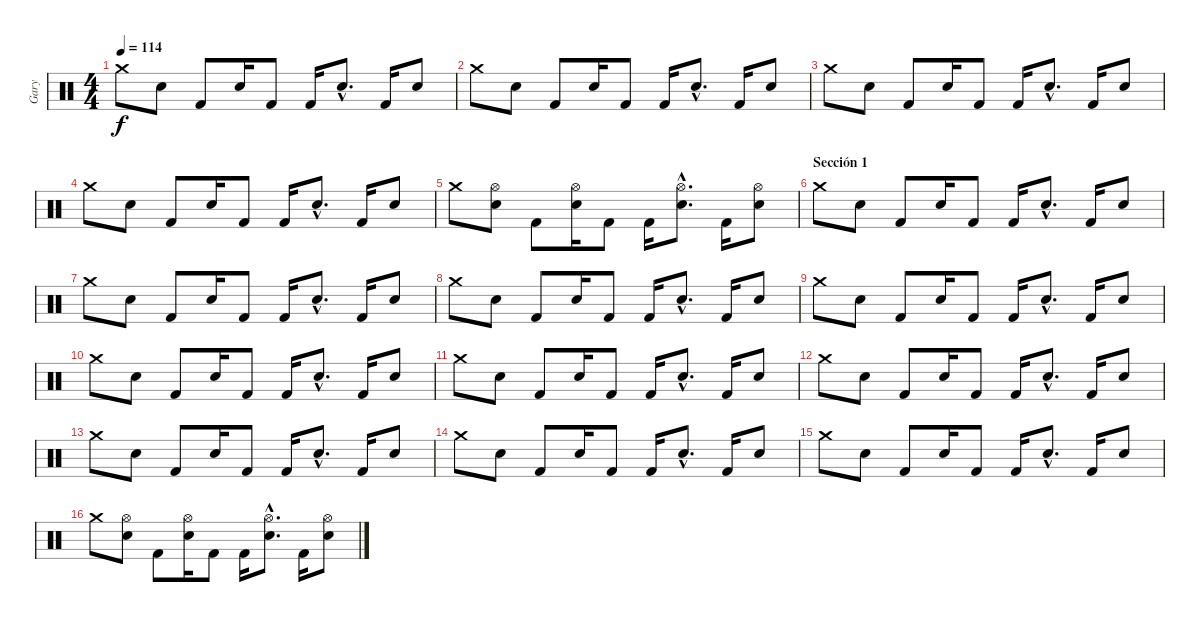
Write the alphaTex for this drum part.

\track ("Gary" "Gary") {instrument percussion}
\staff {score}
\articulation defaults
\ts (4 4)
\tempo 114
\clef neutral
\ks c "Crash medium (hit)".8{dy f} "Snare (hit) 2".8 "Kick (hit) 2".8 "Snare (hit) 2".16 "Kick (hit) 2".8 "Kick (hit) 2".16 "Snare (hit) 2"{hac}.8{d} "Kick (hit) 2".16 "Snare (hit) 2".8
|
"Crash medium (hit)".8 "Snare (hit) 2".8 "Kick (hit) 2".8 "Snare (hit) 2".16 "Kick (hit) 2".8 "Kick (hit) 2".16 "Snare (hit) 2"{hac}.8{d} "Kick (hit) 2".16 "Snare (hit) 2".8 |
"Crash medium (hit)".8 "Snare (hit) 2".8 "Kick (hit) 2".8 "Snare (hit) 2".16 "Kick (hit) 2".8 "Kick (hit) 2".16 "Snare (hit) 2"{hac}.8{d} "Kick (hit) 2".16 "Snare (hit) 2".8 |
"Crash medium (hit)".8 "Snare (hit) 2".8 "Kick (hit) 2".8 "Snare (hit) 2".16 "Kick (hit) 2".8 "Kick (hit) 2".16 "Snare (hit) 2"{hac}.8{d} "Kick (hit) 2".16 "Snare (hit) 2".8 |
"Crash medium (hit)".8 ("Hi-Hat (open)" "Snare (hit) 2").8 "Kick (hit) 2".8 ("Hi-Hat (open)" "Snare (hit) 2").16 "Kick (hit) 2".8 "Kick (hit) 2".16 ("Hi-Hat (open)"{hac} "Snare (hit) 2"{hac}).8{d} "Kick (hit) 2".16 ("Hi-Hat (open)" "Snare (hit) 2").8 |
\section ("" "Sección 1")
"Crash medium (hit)".8 "Snare (hit) 2".8 "Kick (hit) 2".8 "Snare (hit) 2".16 "Kick (hit) 2".8 "Kick (hit) 2".16 "Snare (hit) 2"{hac}.8{d} "Kick (hit) 2".16 "Snare (hit) 2".8 |
"Crash medium (hit)".8 "Snare (hit) 2".8 "Kick (hit) 2".8 "Snare (hit) 2".16 "Kick (hit) 2".8 "Kick (hit) 2".16 "Snare (hit) 2"{hac}.8{d} "Kick (hit) 2".16 "Snare (hit) 2".8 |
"Crash medium (hit)".8 "Snare (hit) 2".8 "Kick (hit) 2".8 "Snare (hit) 2".16 "Kick (hit) 2".8 "Kick (hit) 2".16 "Snare (hit) 2"{hac}.8{d} "Kick (hit) 2".16 "Snare (hit) 2".8 |
"Crash medium (hit)".8 "Snare (hit) 2".8 "Kick (hit) 2".8 "Snare (hit) 2".16 "Kick (hit) 2".8 "Kick (hit) 2".16 "Snare (hit) 2"{hac}.8{d} "Kick (hit) 2".16 "Snare (hit) 2".8 |
"Crash medium (hit)".8 "Snare (hit) 2".8 "Kick (hit) 2".8 "Snare (hit) 2".16 "Kick (hit) 2".8 "Kick (hit) 2".16 "Snare (hit) 2"{hac}.8{d} "Kick (hit) 2".16 "Snare (hit) 2".8 |
"Crash medium (hit)".8 "Snare (hit) 2".8 "Kick (hit) 2".8 "Snare (hit) 2".16 "Kick (hit) 2".8 "Kick (hit) 2".16 "Snare (hit) 2"{hac}.8{d} "Kick (hit) 2".16 "Snare (hit) 2".8 |
"Crash medium (hit)".8 "Snare (hit) 2".8 "Kick (hit) 2".8 "Snare (hit) 2".16 "Kick (hit) 2".8 "Kick (hit) 2".16 "Snare (hit) 2"{hac}.8{d} "Kick (hit) 2".16 "Snare (hit) 2".8 |
"Crash medium (hit)".8 "Snare (hit) 2".8 "Kick (hit) 2".8 "Snare (hit) 2".16 "Kick (hit) 2".8 "Kick (hit) 2".16 "Snare (hit) 2"{hac}.8{d} "Kick (hit) 2".16 "Snare (hit) 2".8 |
"Crash medium (hit)".8 "Snare (hit) 2".8 "Kick (hit) 2".8 "Snare (hit) 2".16 "Kick (hit) 2".8 "Kick (hit) 2".16 "Snare (hit) 2"{hac}.8{d} "Kick (hit) 2".16 "Snare (hit) 2".8 |
"Crash medium (hit)".8 "Snare (hit) 2".8 "Kick (hit) 2".8 "Snare (hit) 2".16 "Kick (hit) 2".8 "Kick (hit) 2".16 "Snare (hit) 2"{hac}.8{d} "Kick (hit) 2".16 "Snare (hit) 2".8 |
"Crash medium (hit)".8 ("Hi-Hat (open)" "Snare (hit) 2").8 "Kick (hit) 2".8 ("Hi-Hat (open)" "Snare (hit) 2").16 "Kick (hit) 2".8 "Kick (hit) 2".16 ("Hi-Hat (open)"{hac} "Snare (hit) 2"{hac}).8{d} "Kick (hit) 2".16 ("Hi-Hat (open)" "Snare (hit) 2").8
